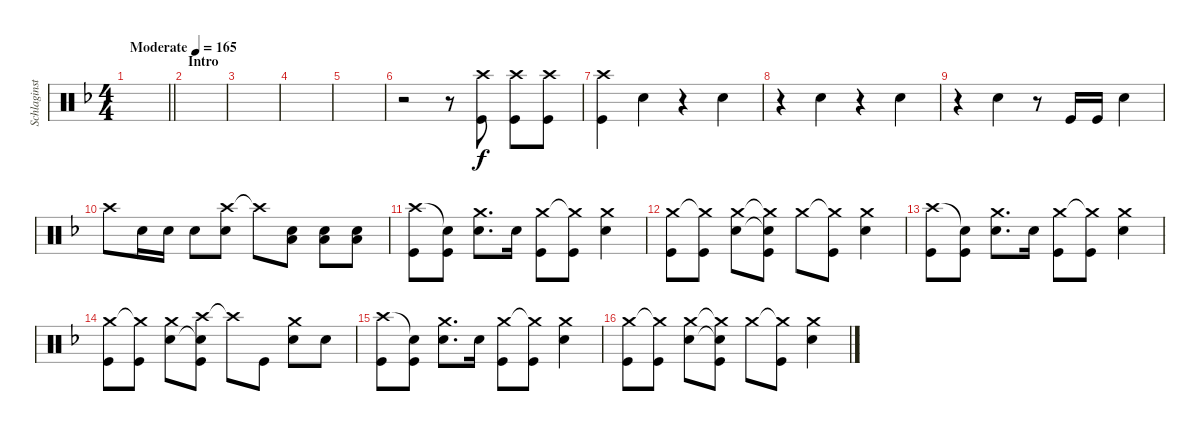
\track ("Schlaginstrumente - Auswahl" "Schlaginst") {instrument percussion}
\staff {score}
\articulation defaults
\ts (4 4)
\tempo (165 "Moderate")
\clef neutral
\barLineRight lightlight
\ks f
|
\section ("" "Intro")
|
|
|
|
r.2 r.8 ("Crash high (hit)" "Kick (hit)").8 ("Crash high (hit)" "Kick (hit)").8 ("Crash high (hit)" "Kick (hit)").8 |
("Crash high (hit)" "Kick (hit)").4 "Snare (hit) 2".4 r.4 "Snare (hit) 2".4 |
r.4 "Snare (hit) 2".4 r.4 "Snare (hit) 2".4 |
r.4 "Snare (hit) 2".4 r.8 "Kick (hit)".16 "Kick (hit)".16 "Snare (hit) 2".4 |
"Crash high (hit)".8 "Snare (hit) 2".16 "Snare (hit) 2".16 "Snare (hit) 2".8 ("Crash high (hit)" "Snare (hit) 2").8 "Crash high (hit)"{t}.8 ("Snare (hit) 2" "Low Tom (hit)").8 ("Snare (hit) 2" "Low Tom (hit)").8 ("Snare (hit) 2" "Low Tom (hit)").8 |
("Crash high (hit)" "Kick (hit)").8 ("Snare (hit)"{t} "Kick (hit)").8 ("Crash medium (hit)" "Snare (hit) 2").8{d} "Snare (hit) 2".16 ("Crash medium (hit)" "Kick (hit)").8 ("Crash medium (hit)"{t} "Kick (hit)").8 ("Crash medium (hit)" "Snare (hit) 2").4 |
("Crash medium (hit)" "Kick (hit)").8 ("Crash medium (hit)"{t} "Kick (hit)").8 ("Crash medium (hit)" "Snare (hit) 2").8 ("Crash medium (hit)"{t} "Snare (hit) 2"{t} "Kick (hit)").8 "Crash medium (hit)".8 ("Crash medium (hit)"{t} "Kick (hit)").8 ("Crash medium (hit)" "Snare (hit) 2").4 |
("Crash high (hit)" "Kick (hit)").8 ("Snare (hit)"{t} "Kick (hit)").8 ("Crash medium (hit)" "Snare (hit) 2").8{d} "Snare (hit) 2".16 ("Crash medium (hit)" "Kick (hit)").8 ("Crash medium (hit)"{t} "Kick (hit)").8 ("Crash medium (hit)" "Snare (hit) 2").4 |
("Crash medium (hit)" "Kick (hit)").8 ("Crash medium (hit)"{t} "Kick (hit)").8 ("Crash medium (hit)" "Snare (hit) 2").8 ("Crash high (hit)" "Snare (hit) 2"{t} "Kick (hit)").8 "Crash high (hit)"{t}.8 "Kick (hit)".8 ("Crash medium (hit)" "Snare (hit) 2").8 "Snare (hit) 2".8 |
("Crash high (hit)" "Kick (hit)").8 ("Snare (hit)"{t} "Kick (hit)").8 ("Crash medium (hit)" "Snare (hit) 2").8{d} "Snare (hit) 2".16 ("Crash medium (hit)" "Kick (hit)").8 ("Crash medium (hit)"{t} "Kick (hit)").8 ("Crash medium (hit)" "Snare (hit) 2").4 |
("Crash medium (hit)" "Kick (hit)").8 ("Crash medium (hit)"{t} "Kick (hit)").8 ("Crash medium (hit)" "Snare (hit) 2").8 ("Crash medium (hit)"{t} "Snare (hit) 2"{t} "Kick (hit)").8 "Crash medium (hit)".8 ("Crash medium (hit)"{t} "Kick (hit)").8 ("Crash medium (hit)" "Snare (hit) 2").4
